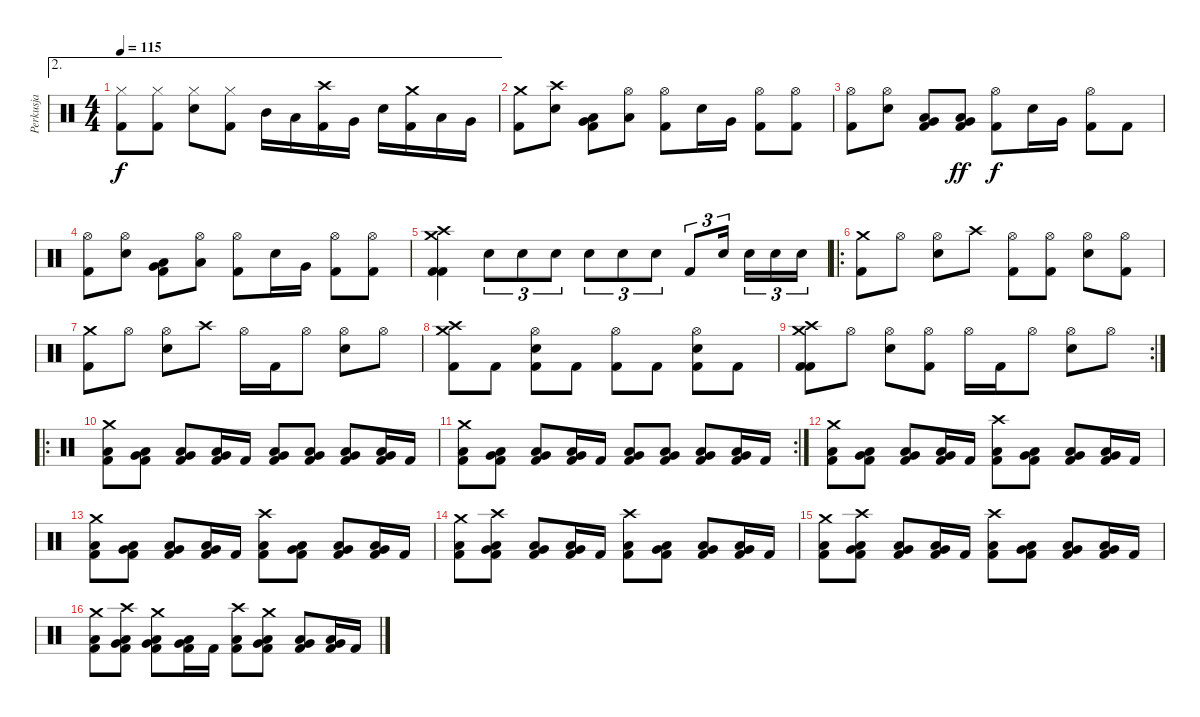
\track ("Perkusja" "Perkusja") {instrument percussion}
\staff {score}
\articulation defaults
\ae 2
\ts (4 4)
\tempo 115
\clef neutral
\ks c
("Hi-Hat (closed)" "Kick (hit) 2").8{dy f} ("Hi-Hat (closed)" "Kick (hit) 2").8 ("Hi-Hat (closed)" "Snare (hit) 2").8 ("Hi-Hat (closed)" "Kick (hit) 2").8 "Mid Tom (hit)".16 "Low Tom (hit)".16 ("Crash high (hit)" "Kick (hit) 2").16 "Very Low Tom (hit)".16 "Snare (hit) 2".16 ("Crash medium (hit)" "Kick (hit) 2").16 "Low Tom (hit)".16 "Very Low Tom (hit)".16 |
("Crash medium (hit)" "Kick (hit) 2").8 ("Crash high (hit)" "Snare (hit) 2").8 ("Very Low Tom (hit)" "Low Tom (hit)" "Kick (hit) 2").8 ("Hi-Hat (open)" "Low Tom (hit)").8 ("Hi-Hat (open)" "Kick (hit) 2").8 "Snare (hit) 2".16 "Very Low Tom (hit)".16 ("Hi-Hat (open)" "Kick (hit) 2").8 ("Hi-Hat (open)" "Kick (hit) 2").8 |
("Hi-Hat (open)" "Kick (hit) 2").8 ("Hi-Hat (open)" "Snare (hit) 2").8 ("Very Low Tom (hit)" "Low Tom (hit)" "Kick (hit) 2").8 ("Very Low Tom (hit)" "Low Tom (hit)" "Kick (hit) 2").8{dy ff} ("Hi-Hat (open)" "Kick (hit) 2").8{dy f} "Snare (hit) 2".16 "Very Low Tom (hit)".16 ("Hi-Hat (open)" "Kick (hit) 2").8 "Kick (hit) 2".8 |
("Hi-Hat (open)" "Kick (hit) 2").8 ("Hi-Hat (open)" "Snare (hit) 2").8 ("Very Low Tom (hit)" "Low Tom (hit)" "Kick (hit) 2").8 ("Hi-Hat (open)" "Low Tom (hit)").8 ("Hi-Hat (open)" "Kick (hit) 2").8 "Snare (hit) 2".16 "Very Low Tom (hit)".16 ("Hi-Hat (open)" "Kick (hit) 2").8 ("Hi-Hat (open)" "Kick (hit) 2").8 |
("Crash medium (hit)" "Crash high (hit)" "Kick (hit) 2" "Kick (hit) 2").4 "Snare (hit) 2".8{tu (3 2)} "Snare (hit) 2".8{tu (3 2)} "Snare (hit) 2".8{tu (3 2)} "Snare (hit) 2".8{tu (3 2)} "Snare (hit) 2".8{tu (3 2)} "Snare (hit) 2".8{tu (3 2)} "Kick (hit) 2".8{tu (3 2)} "Snare (hit) 2".16{tu (3 2)} "Snare (hit) 2".16{tu (3 2)} "Snare (hit) 2".16{tu (3 2)} "Snare (hit) 2".16{tu (3 2)} |
\ro
("Crash medium (hit)" "Kick (hit) 2").8 "Hi-Hat (open)".8 ("Hi-Hat (open)" "Snare (hit) 2").8 "Crash high (hit)".8 ("Hi-Hat (open)" "Kick (hit) 2").8 ("Hi-Hat (open)" "Kick (hit) 2").8 ("Hi-Hat (open)" "Snare (hit) 2").8 ("Hi-Hat (open)" "Kick (hit) 2").8 |
("Crash medium (hit)" "Kick (hit) 2").8 "Hi-Hat (open)".8 ("Hi-Hat (open)" "Snare (hit) 2").8 "Crash high (hit)".8 "Hi-Hat (open)".16 "Kick (hit) 2".16 "Hi-Hat (open)".8 ("Hi-Hat (open)" "Snare (hit) 2").8 "Hi-Hat (open)".8 |
("Crash medium (hit)" "Crash high (hit)" "Kick (hit) 2").8 "Kick (hit) 2".8 ("Hi-Hat (open)" "Snare (hit) 2" "Kick (hit) 2").8 "Kick (hit) 2".8 ("Hi-Hat (open)" "Kick (hit) 2").8 "Kick (hit) 2".8 ("Hi-Hat (open)" "Snare (hit) 2" "Kick (hit) 2").8 "Kick (hit) 2".8 |
\rc 2
("Crash medium (hit)" "Crash high (hit)" "Kick (hit) 2" "Kick (hit) 2").8 "Hi-Hat (open)".8 ("Hi-Hat (open)" "Snare (hit) 2").8 ("Hi-Hat (open)" "Kick (hit) 2").8 "Hi-Hat (open)".16 "Kick (hit) 2".16 "Hi-Hat (open)".8 ("Hi-Hat (open)" "Snare (hit) 2").8 "Hi-Hat (open)".8 |
\ro
("Crash medium (hit)" "Low Tom (hit)" "Kick (hit) 2").8 ("Very Low Tom (hit)" "Low Tom (hit)" "Kick (hit) 2").8 ("Very Low Tom (hit)" "Low Tom (hit)" "Kick (hit) 2").8 ("Very Low Tom (hit)" "Low Tom (hit)" "Kick (hit) 2").16 "Kick (hit) 2".16 ("Very Low Tom (hit)" "Low Tom (hit)" "Kick (hit) 2").8 ("Very Low Tom (hit)" "Low Tom (hit)" "Kick (hit) 2").8 ("Very Low Tom (hit)" "Low Tom (hit)" "Kick (hit) 2").8 ("Very Low Tom (hit)" "Low Tom (hit)" "Kick (hit) 2").16 "Kick (hit) 2".16 |
\rc 2
("Crash medium (hit)" "Low Tom (hit)" "Kick (hit) 2").8 ("Very Low Tom (hit)" "Low Tom (hit)" "Kick (hit) 2").8 ("Very Low Tom (hit)" "Low Tom (hit)" "Kick (hit) 2").8 ("Very Low Tom (hit)" "Low Tom (hit)" "Kick (hit) 2").16 "Kick (hit) 2".16 ("Very Low Tom (hit)" "Low Tom (hit)" "Kick (hit) 2").8 ("Very Low Tom (hit)" "Low Tom (hit)" "Kick (hit) 2").8 ("Very Low Tom (hit)" "Low Tom (hit)" "Kick (hit) 2").8 ("Very Low Tom (hit)" "Low Tom (hit)" "Kick (hit) 2").16 "Kick (hit) 2".16 |
("Crash medium (hit)" "Low Tom (hit)" "Kick (hit) 2").8 ("Very Low Tom (hit)" "Low Tom (hit)" "Kick (hit) 2").8 ("Very Low Tom (hit)" "Low Tom (hit)" "Kick (hit) 2").8 ("Very Low Tom (hit)" "Low Tom (hit)" "Kick (hit) 2").16 "Kick (hit) 2".16 ("Crash high (hit)" "Low Tom (hit)" "Kick (hit) 2").8 ("Very Low Tom (hit)" "Low Tom (hit)" "Kick (hit) 2").8 ("Very Low Tom (hit)" "Low Tom (hit)" "Kick (hit) 2").8 ("Very Low Tom (hit)" "Low Tom (hit)" "Kick (hit) 2").16 "Kick (hit) 2".16 |
("Crash medium (hit)" "Low Tom (hit)" "Kick (hit) 2").8 ("Very Low Tom (hit)" "Low Tom (hit)" "Kick (hit) 2").8 ("Very Low Tom (hit)" "Low Tom (hit)" "Kick (hit) 2").8 ("Very Low Tom (hit)" "Low Tom (hit)" "Kick (hit) 2").16 "Kick (hit) 2".16 ("Crash high (hit)" "Low Tom (hit)" "Kick (hit) 2").8 ("Very Low Tom (hit)" "Low Tom (hit)" "Kick (hit) 2").8 ("Very Low Tom (hit)" "Low Tom (hit)" "Kick (hit) 2").8 ("Very Low Tom (hit)" "Low Tom (hit)" "Kick (hit) 2").16 "Kick (hit) 2".16 |
("Crash medium (hit)" "Low Tom (hit)" "Kick (hit) 2").8 ("Crash high (hit)" "Very Low Tom (hit)" "Low Tom (hit)" "Kick (hit) 2").8 ("Very Low Tom (hit)" "Low Tom (hit)" "Kick (hit) 2").8 ("Very Low Tom (hit)" "Low Tom (hit)" "Kick (hit) 2").16 "Kick (hit) 2".16 ("Crash high (hit)" "Low Tom (hit)" "Kick (hit) 2").8 ("Very Low Tom (hit)" "Low Tom (hit)" "Kick (hit) 2").8 ("Very Low Tom (hit)" "Low Tom (hit)" "Kick (hit) 2").8 ("Very Low Tom (hit)" "Low Tom (hit)" "Kick (hit) 2").16 "Kick (hit) 2".16 |
("Crash medium (hit)" "Low Tom (hit)" "Kick (hit) 2").8 ("Crash high (hit)" "Very Low Tom (hit)" "Low Tom (hit)" "Kick (hit) 2").8 ("Very Low Tom (hit)" "Low Tom (hit)" "Kick (hit) 2").8 ("Very Low Tom (hit)" "Low Tom (hit)" "Kick (hit) 2").16 "Kick (hit) 2".16 ("Crash high (hit)" "Low Tom (hit)" "Kick (hit) 2").8 ("Very Low Tom (hit)" "Low Tom (hit)" "Kick (hit) 2").8 ("Very Low Tom (hit)" "Low Tom (hit)" "Kick (hit) 2").8 ("Very Low Tom (hit)" "Low Tom (hit)" "Kick (hit) 2").16 "Kick (hit) 2".16 |
("Crash medium (hit)" "Low Tom (hit)" "Kick (hit) 2").8 ("Crash high (hit)" "Very Low Tom (hit)" "Low Tom (hit)" "Kick (hit) 2").8 ("Crash medium (hit)" "Very Low Tom (hit)" "Low Tom (hit)" "Kick (hit) 2").8 ("Very Low Tom (hit)" "Low Tom (hit)" "Kick (hit) 2").16 "Kick (hit) 2".16 ("Crash high (hit)" "Low Tom (hit)" "Kick (hit) 2").8 ("Crash medium (hit)" "Very Low Tom (hit)" "Low Tom (hit)" "Kick (hit) 2").8 ("Very Low Tom (hit)" "Low Tom (hit)" "Kick (hit) 2").8 ("Very Low Tom (hit)" "Low Tom (hit)" "Kick (hit) 2").16 "Kick (hit) 2".16
